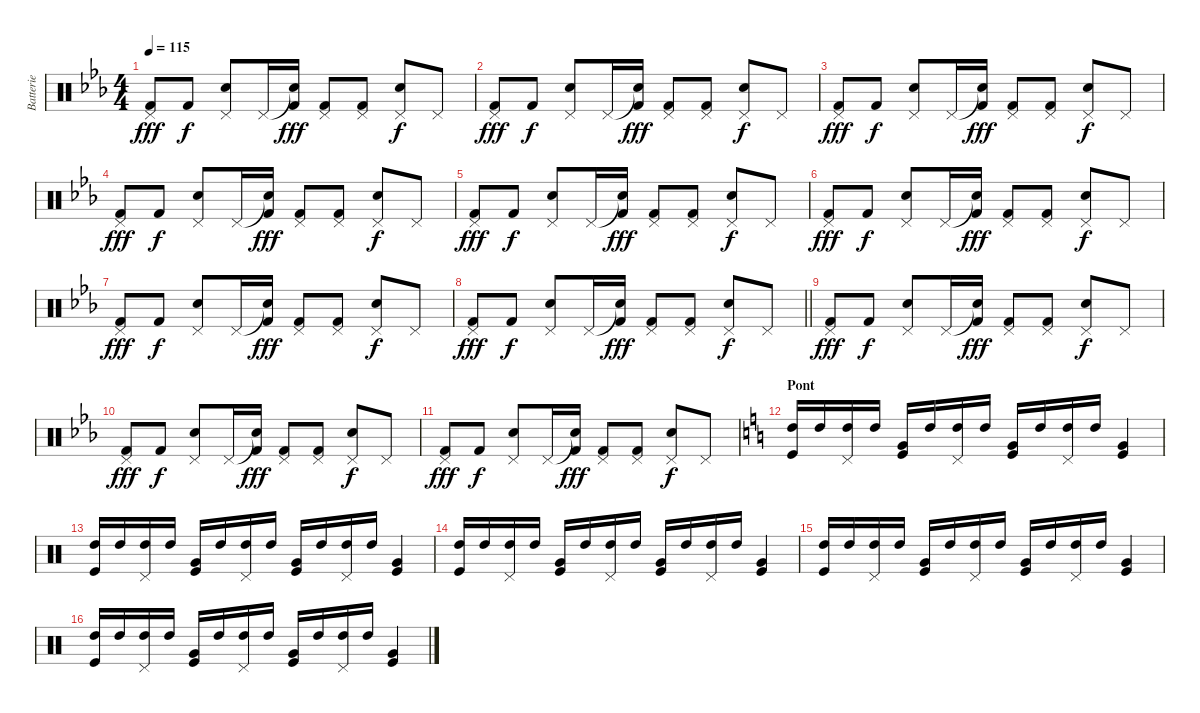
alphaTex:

\track ("Batterie" "Batterie") {instrument percussion}
\staff {score}
\articulation defaults
\ts (4 4)
\tempo 115
\clef neutral
\ks eb
("Pedal Hi-Hat (hit)" "Kick (hit) 2").8{dy fff} "Kick (hit) 2".8{dy f} ("Pedal Hi-Hat (hit)" "Snare (hit) 2").8 "Pedal Hi-Hat (hit)".16 ("Snare (hit)"{t} "Kick (hit) 2").16{dy fff} ("Pedal Hi-Hat (hit)" "Kick (hit) 2").8 ("Pedal Hi-Hat (hit)" "Kick (hit) 2").8 ("Pedal Hi-Hat (hit)" "Snare (hit) 2").8{dy f} "Pedal Hi-Hat (hit)".8 |
("Pedal Hi-Hat (hit)" "Kick (hit) 2").8{dy fff} "Kick (hit) 2".8{dy f} ("Pedal Hi-Hat (hit)" "Snare (hit) 2").8 "Pedal Hi-Hat (hit)".16 ("Snare (hit)"{t} "Kick (hit) 2").16{dy fff} ("Pedal Hi-Hat (hit)" "Kick (hit) 2").8 ("Pedal Hi-Hat (hit)" "Kick (hit) 2").8 ("Pedal Hi-Hat (hit)" "Snare (hit) 2").8{dy f} "Pedal Hi-Hat (hit)".8 |
("Pedal Hi-Hat (hit)" "Kick (hit) 2").8{dy fff} "Kick (hit) 2".8{dy f} ("Pedal Hi-Hat (hit)" "Snare (hit) 2").8 "Pedal Hi-Hat (hit)".16 ("Snare (hit)"{t} "Kick (hit) 2").16{dy fff} ("Pedal Hi-Hat (hit)" "Kick (hit) 2").8 ("Pedal Hi-Hat (hit)" "Kick (hit) 2").8 ("Pedal Hi-Hat (hit)" "Snare (hit) 2").8{dy f} "Pedal Hi-Hat (hit)".8 |
("Pedal Hi-Hat (hit)" "Kick (hit) 2").8{dy fff} "Kick (hit) 2".8{dy f} ("Pedal Hi-Hat (hit)" "Snare (hit) 2").8 "Pedal Hi-Hat (hit)".16 ("Snare (hit)"{t} "Kick (hit) 2").16{dy fff} ("Pedal Hi-Hat (hit)" "Kick (hit) 2").8 ("Pedal Hi-Hat (hit)" "Kick (hit) 2").8 ("Pedal Hi-Hat (hit)" "Snare (hit) 2").8{dy f} "Pedal Hi-Hat (hit)".8 |
("Pedal Hi-Hat (hit)" "Kick (hit) 2").8{dy fff} "Kick (hit) 2".8{dy f} ("Pedal Hi-Hat (hit)" "Snare (hit) 2").8 "Pedal Hi-Hat (hit)".16 ("Snare (hit)"{t} "Kick (hit) 2").16{dy fff} ("Pedal Hi-Hat (hit)" "Kick (hit) 2").8 ("Pedal Hi-Hat (hit)" "Kick (hit) 2").8 ("Pedal Hi-Hat (hit)" "Snare (hit) 2").8{dy f} "Pedal Hi-Hat (hit)".8 |
("Pedal Hi-Hat (hit)" "Kick (hit) 2").8{dy fff} "Kick (hit) 2".8{dy f} ("Pedal Hi-Hat (hit)" "Snare (hit) 2").8 "Pedal Hi-Hat (hit)".16 ("Snare (hit)"{t} "Kick (hit) 2").16{dy fff} ("Pedal Hi-Hat (hit)" "Kick (hit) 2").8 ("Pedal Hi-Hat (hit)" "Kick (hit) 2").8 ("Pedal Hi-Hat (hit)" "Snare (hit) 2").8{dy f} "Pedal Hi-Hat (hit)".8 |
("Pedal Hi-Hat (hit)" "Kick (hit) 2").8{dy fff} "Kick (hit) 2".8{dy f} ("Pedal Hi-Hat (hit)" "Snare (hit) 2").8 "Pedal Hi-Hat (hit)".16 ("Snare (hit)"{t} "Kick (hit) 2").16{dy fff} ("Pedal Hi-Hat (hit)" "Kick (hit) 2").8 ("Pedal Hi-Hat (hit)" "Kick (hit) 2").8 ("Pedal Hi-Hat (hit)" "Snare (hit) 2").8{dy f} "Pedal Hi-Hat (hit)".8 |
\barLineRight lightlight
("Pedal Hi-Hat (hit)" "Kick (hit) 2").8{dy fff} "Kick (hit) 2".8{dy f} ("Pedal Hi-Hat (hit)" "Snare (hit) 2").8 "Pedal Hi-Hat (hit)".16 ("Snare (hit)"{t} "Kick (hit) 2").16{dy fff} ("Pedal Hi-Hat (hit)" "Kick (hit) 2").8 ("Pedal Hi-Hat (hit)" "Kick (hit) 2").8 ("Pedal Hi-Hat (hit)" "Snare (hit) 2").8{dy f} "Pedal Hi-Hat (hit)".8 |
("Pedal Hi-Hat (hit)" "Kick (hit) 2").8{dy fff} "Kick (hit) 2".8{dy f} ("Pedal Hi-Hat (hit)" "Snare (hit) 2").8 "Pedal Hi-Hat (hit)".16 ("Snare (hit)"{t} "Kick (hit) 2").16{dy fff} ("Pedal Hi-Hat (hit)" "Kick (hit) 2").8 ("Pedal Hi-Hat (hit)" "Kick (hit) 2").8 ("Pedal Hi-Hat (hit)" "Snare (hit) 2").8{dy f} "Pedal Hi-Hat (hit)".8 |
("Pedal Hi-Hat (hit)" "Kick (hit) 2").8{dy fff} "Kick (hit) 2".8{dy f} ("Pedal Hi-Hat (hit)" "Snare (hit) 2").8 "Pedal Hi-Hat (hit)".16 ("Snare (hit)"{t} "Kick (hit) 2").16{dy fff} ("Pedal Hi-Hat (hit)" "Kick (hit) 2").8 ("Pedal Hi-Hat (hit)" "Kick (hit) 2").8 ("Pedal Hi-Hat (hit)" "Snare (hit) 2").8{dy f} "Pedal Hi-Hat (hit)".8 |
("Pedal Hi-Hat (hit)" "Kick (hit) 2").8{dy fff} "Kick (hit) 2".8{dy f} ("Pedal Hi-Hat (hit)" "Snare (hit) 2").8 "Pedal Hi-Hat (hit)".16 ("Snare (hit)"{t} "Kick (hit) 2").16{dy fff} ("Pedal Hi-Hat (hit)" "Kick (hit) 2").8 ("Pedal Hi-Hat (hit)" "Kick (hit) 2").8 ("Pedal Hi-Hat (hit)" "Snare (hit) 2").8{dy f} "Pedal Hi-Hat (hit)".8 |
\section ("" "Pont")
\ks c
("High Tom (hit)" "Kick (hit)").16{volume 16} "High Tom (hit)".16 ("High Tom (hit)" "Pedal Hi-Hat (hit)").16 "High Tom (hit)".16 ("Very Low Tom (hit)" "Kick (hit)").16 "High Tom (hit)".16 ("High Tom (hit)" "Pedal Hi-Hat (hit)").16 "High Tom (hit)".16 ("Very Low Tom (hit)" "Kick (hit)").16 "High Tom (hit)".16 ("High Tom (hit)" "Pedal Hi-Hat (hit)").16 "High Tom (hit)".16 ("Very Low Tom (hit)" "Kick (hit)").4 |
("High Tom (hit)" "Kick (hit)").16 "High Tom (hit)".16 ("High Tom (hit)" "Pedal Hi-Hat (hit)").16 "High Tom (hit)".16 ("Very Low Tom (hit)" "Kick (hit)").16 "High Tom (hit)".16 ("High Tom (hit)" "Pedal Hi-Hat (hit)").16 "High Tom (hit)".16 ("Very Low Tom (hit)" "Kick (hit)").16 "High Tom (hit)".16 ("High Tom (hit)" "Pedal Hi-Hat (hit)").16 "High Tom (hit)".16 ("Very Low Tom (hit)" "Kick (hit)").4 |
("High Tom (hit)" "Kick (hit)").16 "High Tom (hit)".16 ("High Tom (hit)" "Pedal Hi-Hat (hit)").16 "High Tom (hit)".16 ("Very Low Tom (hit)" "Kick (hit)").16 "High Tom (hit)".16 ("High Tom (hit)" "Pedal Hi-Hat (hit)").16 "High Tom (hit)".16 ("Very Low Tom (hit)" "Kick (hit)").16 "High Tom (hit)".16 ("High Tom (hit)" "Pedal Hi-Hat (hit)").16 "High Tom (hit)".16 ("Very Low Tom (hit)" "Kick (hit)").4 |
("High Tom (hit)" "Kick (hit)").16 "High Tom (hit)".16 ("High Tom (hit)" "Pedal Hi-Hat (hit)").16 "High Tom (hit)".16 ("Very Low Tom (hit)" "Kick (hit)").16 "High Tom (hit)".16 ("High Tom (hit)" "Pedal Hi-Hat (hit)").16 "High Tom (hit)".16 ("Very Low Tom (hit)" "Kick (hit)").16 "High Tom (hit)".16 ("High Tom (hit)" "Pedal Hi-Hat (hit)").16 "High Tom (hit)".16 ("Very Low Tom (hit)" "Kick (hit)").4 |
("High Tom (hit)" "Kick (hit)").16 "High Tom (hit)".16 ("High Tom (hit)" "Pedal Hi-Hat (hit)").16 "High Tom (hit)".16 ("Very Low Tom (hit)" "Kick (hit)").16 "High Tom (hit)".16 ("High Tom (hit)" "Pedal Hi-Hat (hit)").16 "High Tom (hit)".16 ("Very Low Tom (hit)" "Kick (hit)").16 "High Tom (hit)".16 ("High Tom (hit)" "Pedal Hi-Hat (hit)").16 "High Tom (hit)".16 ("Very Low Tom (hit)" "Kick (hit)").4
